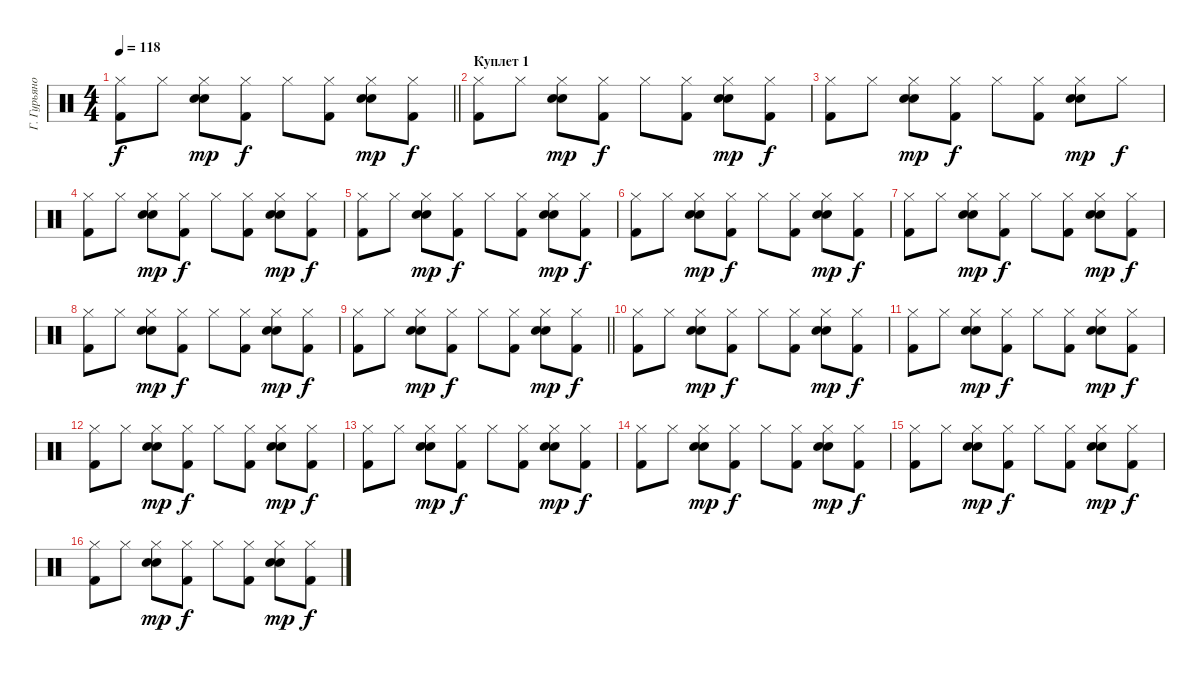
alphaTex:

\track ("Г. Гурьянов" "Г. Гурьяно") {instrument percussion}
\staff
\articulation defaults
\ts (4 4)
\tempo 118
\clef neutral
\barLineRight lightlight
\ks c
("Hi-Hat (closed)" "Kick (hit) 2").8{dy f} "Hi-Hat (closed)".8 ("Hi-Hat (closed)" "Electric Snare (hit)" "Snare (hit) 2").8{dy mp} ("Hi-Hat (closed)" "Kick (hit) 2").8{dy f} "Hi-Hat (closed)".8 ("Hi-Hat (closed)" "Kick (hit) 2").8 ("Hi-Hat (closed)" "Electric Snare (hit)" "Snare (hit) 2").8{dy mp} ("Hi-Hat (closed)" "Kick (hit) 2").8{dy f} |
\section ("" "Куплет 1")
("Hi-Hat (closed)" "Kick (hit) 2").8 "Hi-Hat (closed)".8 ("Hi-Hat (closed)" "Electric Snare (hit)" "Snare (hit) 2").8{dy mp} ("Hi-Hat (closed)" "Kick (hit) 2").8{dy f} "Hi-Hat (closed)".8 ("Hi-Hat (closed)" "Kick (hit) 2").8 ("Hi-Hat (closed)" "Electric Snare (hit)" "Snare (hit) 2").8{dy mp} ("Hi-Hat (closed)" "Kick (hit) 2").8{dy f} |
("Hi-Hat (closed)" "Kick (hit) 2").8 "Hi-Hat (closed)".8 ("Hi-Hat (closed)" "Electric Snare (hit)" "Snare (hit) 2").8{dy mp} ("Hi-Hat (closed)" "Kick (hit) 2").8{dy f} "Hi-Hat (closed)".8 ("Hi-Hat (closed)" "Kick (hit) 2").8 ("Hi-Hat (closed)" "Electric Snare (hit)" "Snare (hit) 2").8{dy mp} "Hi-Hat (closed)".8{dy f} |
("Hi-Hat (closed)" "Kick (hit) 2").8 "Hi-Hat (closed)".8 ("Hi-Hat (closed)" "Electric Snare (hit)" "Snare (hit) 2").8{dy mp} ("Hi-Hat (closed)" "Kick (hit) 2").8{dy f} "Hi-Hat (closed)".8 ("Hi-Hat (closed)" "Kick (hit) 2").8 ("Hi-Hat (closed)" "Electric Snare (hit)" "Snare (hit) 2").8{dy mp} ("Hi-Hat (closed)" "Kick (hit) 2").8{dy f} |
("Hi-Hat (closed)" "Kick (hit) 2").8 "Hi-Hat (closed)".8 ("Hi-Hat (closed)" "Electric Snare (hit)" "Snare (hit) 2").8{dy mp} ("Hi-Hat (closed)" "Kick (hit) 2").8{dy f} "Hi-Hat (closed)".8 ("Hi-Hat (closed)" "Kick (hit) 2").8 ("Hi-Hat (closed)" "Electric Snare (hit)" "Snare (hit) 2").8{dy mp} ("Hi-Hat (closed)" "Kick (hit) 2").8{dy f} |
("Hi-Hat (closed)" "Kick (hit) 2").8 "Hi-Hat (closed)".8 ("Hi-Hat (closed)" "Electric Snare (hit)" "Snare (hit) 2").8{dy mp} ("Hi-Hat (closed)" "Kick (hit) 2").8{dy f} "Hi-Hat (closed)".8 ("Hi-Hat (closed)" "Kick (hit) 2").8 ("Hi-Hat (closed)" "Electric Snare (hit)" "Snare (hit) 2").8{dy mp} ("Hi-Hat (closed)" "Kick (hit) 2").8{dy f} |
("Hi-Hat (closed)" "Kick (hit) 2").8 "Hi-Hat (closed)".8 ("Hi-Hat (closed)" "Electric Snare (hit)" "Snare (hit) 2").8{dy mp} ("Hi-Hat (closed)" "Kick (hit) 2").8{dy f} "Hi-Hat (closed)".8 ("Hi-Hat (closed)" "Kick (hit) 2").8 ("Hi-Hat (closed)" "Electric Snare (hit)" "Snare (hit) 2").8{dy mp} ("Hi-Hat (closed)" "Kick (hit) 2").8{dy f} |
("Hi-Hat (closed)" "Kick (hit) 2").8 "Hi-Hat (closed)".8 ("Hi-Hat (closed)" "Electric Snare (hit)" "Snare (hit) 2").8{dy mp} ("Hi-Hat (closed)" "Kick (hit) 2").8{dy f} "Hi-Hat (closed)".8 ("Hi-Hat (closed)" "Kick (hit) 2").8 ("Hi-Hat (closed)" "Electric Snare (hit)" "Snare (hit) 2").8{dy mp} ("Hi-Hat (closed)" "Kick (hit) 2").8{dy f} |
\barLineRight lightlight
("Hi-Hat (closed)" "Kick (hit) 2").8 "Hi-Hat (closed)".8 ("Hi-Hat (closed)" "Electric Snare (hit)" "Snare (hit) 2").8{dy mp} ("Hi-Hat (closed)" "Kick (hit) 2").8{dy f} "Hi-Hat (closed)".8 ("Hi-Hat (closed)" "Kick (hit) 2").8 ("Hi-Hat (closed)" "Electric Snare (hit)" "Snare (hit) 2").8{dy mp} ("Hi-Hat (closed)" "Kick (hit) 2").8{dy f} |
("Hi-Hat (closed)" "Kick (hit) 2").8 "Hi-Hat (closed)".8 ("Hi-Hat (closed)" "Electric Snare (hit)" "Snare (hit) 2").8{dy mp} ("Hi-Hat (closed)" "Kick (hit) 2").8{dy f} "Hi-Hat (closed)".8 ("Hi-Hat (closed)" "Kick (hit) 2").8 ("Hi-Hat (closed)" "Electric Snare (hit)" "Snare (hit) 2").8{dy mp} ("Hi-Hat (closed)" "Kick (hit) 2").8{dy f} |
("Hi-Hat (closed)" "Kick (hit) 2").8 "Hi-Hat (closed)".8 ("Hi-Hat (closed)" "Electric Snare (hit)" "Snare (hit) 2").8{dy mp} ("Hi-Hat (closed)" "Kick (hit) 2").8{dy f} "Hi-Hat (closed)".8 ("Hi-Hat (closed)" "Kick (hit) 2").8 ("Hi-Hat (closed)" "Electric Snare (hit)" "Snare (hit) 2").8{dy mp} ("Hi-Hat (closed)" "Kick (hit) 2").8{dy f} |
("Hi-Hat (closed)" "Kick (hit) 2").8 "Hi-Hat (closed)".8 ("Hi-Hat (closed)" "Electric Snare (hit)" "Snare (hit) 2").8{dy mp} ("Hi-Hat (closed)" "Kick (hit) 2").8{dy f} "Hi-Hat (closed)".8 ("Hi-Hat (closed)" "Kick (hit) 2").8 ("Hi-Hat (closed)" "Electric Snare (hit)" "Snare (hit) 2").8{dy mp} ("Hi-Hat (closed)" "Kick (hit) 2").8{dy f} |
("Hi-Hat (closed)" "Kick (hit) 2").8 "Hi-Hat (closed)".8 ("Hi-Hat (closed)" "Electric Snare (hit)" "Snare (hit) 2").8{dy mp} ("Hi-Hat (closed)" "Kick (hit) 2").8{dy f} "Hi-Hat (closed)".8 ("Hi-Hat (closed)" "Kick (hit) 2").8 ("Hi-Hat (closed)" "Electric Snare (hit)" "Snare (hit) 2").8{dy mp} ("Hi-Hat (closed)" "Kick (hit) 2").8{dy f} |
("Hi-Hat (closed)" "Kick (hit) 2").8 "Hi-Hat (closed)".8 ("Hi-Hat (closed)" "Electric Snare (hit)" "Snare (hit) 2").8{dy mp} ("Hi-Hat (closed)" "Kick (hit) 2").8{dy f} "Hi-Hat (closed)".8 ("Hi-Hat (closed)" "Kick (hit) 2").8 ("Hi-Hat (closed)" "Electric Snare (hit)" "Snare (hit) 2").8{dy mp} ("Hi-Hat (closed)" "Kick (hit) 2").8{dy f} |
("Hi-Hat (closed)" "Kick (hit) 2").8 "Hi-Hat (closed)".8 ("Hi-Hat (closed)" "Electric Snare (hit)" "Snare (hit) 2").8{dy mp} ("Hi-Hat (closed)" "Kick (hit) 2").8{dy f} "Hi-Hat (closed)".8 ("Hi-Hat (closed)" "Kick (hit) 2").8 ("Hi-Hat (closed)" "Electric Snare (hit)" "Snare (hit) 2").8{dy mp} ("Hi-Hat (closed)" "Kick (hit) 2").8{dy f} |
("Hi-Hat (closed)" "Kick (hit) 2").8 "Hi-Hat (closed)".8 ("Hi-Hat (closed)" "Electric Snare (hit)" "Snare (hit) 2").8{dy mp} ("Hi-Hat (closed)" "Kick (hit) 2").8{dy f} "Hi-Hat (closed)".8 ("Hi-Hat (closed)" "Kick (hit) 2").8 ("Hi-Hat (closed)" "Electric Snare (hit)" "Snare (hit) 2").8{dy mp} ("Hi-Hat (closed)" "Kick (hit) 2").8{dy f}
